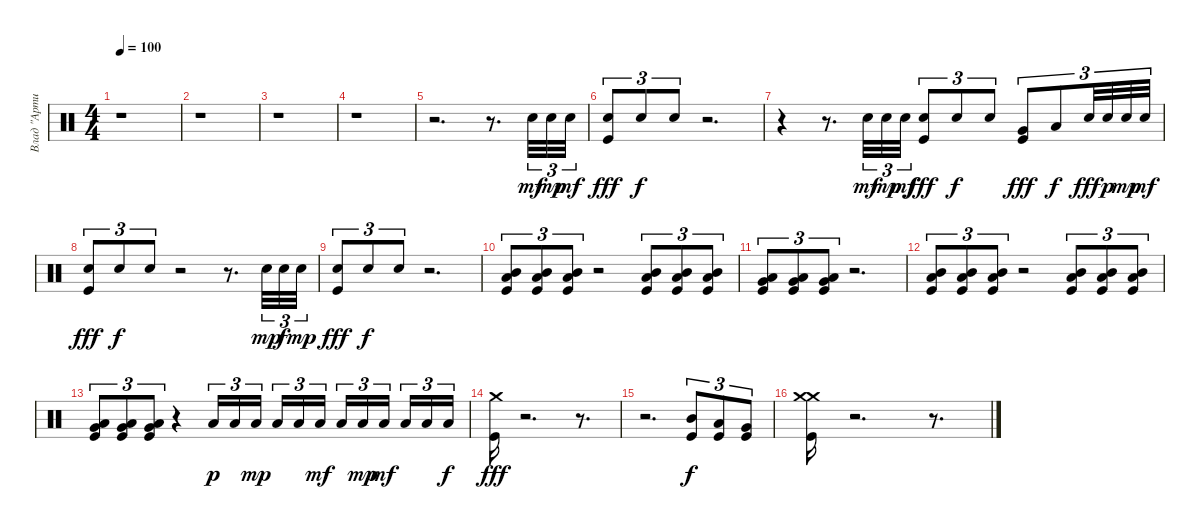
\track ("Влад \"Артист\"" "Влад \"Арти") {instrument percussion}
\staff {score}
\articulation defaults
\ts (4 4)
\tempo 100
\clef neutral
\ks c
r.1{dy mf} |
r.1 |
r.1 |
r.1 |
r.2{d} r.8{d} "Snare (hit) 2".32{tu (3 2)} "Snare (hit) 2".32{tu (3 2) dy mp} "Snare (hit) 2".32{tu (3 2) dy mf} |
("Snare (hit) 2" "Kick (hit)").8{tu (3 2) dy fff} "Snare (hit) 2".8{tu (3 2) dy f} "Snare (hit) 2".8{tu (3 2)} r.2{d} |
r.4 r.8{d} "Snare (hit) 2".32{tu (3 2) dy mf} "Snare (hit) 2".32{tu (3 2) dy mp} "Snare (hit) 2".32{tu (3 2) dy mf} ("Snare (hit) 2" "Kick (hit)").8{tu (3 2) dy fff} "Snare (hit) 2".8{tu (3 2) dy f} "Snare (hit) 2".8{tu (3 2)} ("Very Low Tom (hit)" "Kick (hit)").8{tu (3 2) dy fff} "Low Floor Tom (hit)".8{tu (3 2) dy f} "Snare (hit) 2".32{tu (3 2) dy fff} "Snare (hit) 2".32{tu (3 2) dy p} "Snare (hit) 2".32{tu (3 2) dy mp} "Snare (hit) 2".32{tu (3 2) dy mf} |
("Snare (hit) 2" "Kick (hit)").8{tu (3 2) dy fff} "Snare (hit) 2".8{tu (3 2) dy f} "Snare (hit) 2".8{tu (3 2)} r.2 r.8{d} "Snare (hit) 2".32{tu (3 2) dy mp} "Snare (hit) 2".32{tu (3 2) dy f} "Snare (hit) 2".32{tu (3 2) dy mp} |
("Snare (hit) 2" "Kick (hit)").8{tu (3 2) dy fff} "Snare (hit) 2".8{tu (3 2) dy f} "Snare (hit) 2".8{tu (3 2)} r.2{d} |
("Mid Tom (hit)" "Low Tom (hit)" "Kick (hit)").8{tu (3 2)} ("Kick (hit)" "Low Tom (hit)" "Mid Tom (hit)").8{tu (3 2)} ("Kick (hit)" "Low Tom (hit)" "Mid Tom (hit)").8{tu (3 2)} r.2 ("Kick (hit)" "Low Tom (hit)" "Mid Tom (hit)").8{tu (3 2)} ("Mid Tom (hit)" "Low Tom (hit)" "Kick (hit)").8{tu (3 2)} ("Kick (hit)" "Mid Tom (hit)" "Low Tom (hit)").8{tu (3 2)} |
("Kick (hit)" "Low Tom (hit)" "Very Low Tom (hit)").8{tu (3 2)} ("Low Tom (hit)" "Very Low Tom (hit)" "Kick (hit)").8{tu (3 2)} ("Kick (hit)" "Low Tom (hit)" "Very Low Tom (hit)").8{tu (3 2)} r.2{d} |
("Kick (hit)" "Mid Tom (hit)" "Low Tom (hit)").8{tu (3 2)} ("Kick (hit)" "Mid Tom (hit)" "Low Tom (hit)").8{tu (3 2)} ("Kick (hit)" "Mid Tom (hit)" "Low Tom (hit)").8{tu (3 2)} r.2 ("Kick (hit)" "Low Tom (hit)" "Mid Tom (hit)").8{tu (3 2)} ("Kick (hit)" "Mid Tom (hit)" "Low Tom (hit)").8{tu (3 2)} ("Kick (hit)" "Mid Tom (hit)" "Low Tom (hit)").8{tu (3 2)} |
("Kick (hit)" "Very Low Tom (hit)" "Low Tom (hit)").8{tu (3 2)} ("Kick (hit)" "Low Tom (hit)" "Very Low Tom (hit)").8{tu (3 2)} ("Very Low Tom (hit)" "Low Tom (hit)" "Kick (hit)").8{tu (3 2)} r.4 "Low Floor Tom (hit)".16{tu (3 2) dy p} "Low Floor Tom (hit)".16{tu (3 2)} "Low Floor Tom (hit)".16{tu (3 2) dy mp beam splitsecondary} "Low Floor Tom (hit)".16{tu (3 2)} "Low Floor Tom (hit)".16{tu (3 2)} "Low Floor Tom (hit)".16{tu (3 2) dy mf} "Low Floor Tom (hit)".16{tu (3 2)} "Low Floor Tom (hit)".16{tu (3 2) dy mp} "Low Floor Tom (hit)".16{tu (3 2) dy mf beam splitsecondary} "Low Floor Tom (hit)".16{tu (3 2)} "Low Floor Tom (hit)".16{tu (3 2)} "Low Floor Tom (hit)".16{tu (3 2) dy f} |
("Crash medium (hit)" "Kick (hit)").16{dy fff} r.2{d} r.8{d} |
r.2{d} ("Mid Tom (hit)" "Kick (hit)").8{tu (3 2) dy f} ("Kick (hit)" "Low Tom (hit)").8{tu (3 2)} ("Kick (hit)" "Very Low Tom (hit)").8{tu (3 2)} |
("Crash medium (hit)" "Crash medium (hit)" "Kick (hit)").16 r.2{d} r.8{d}
